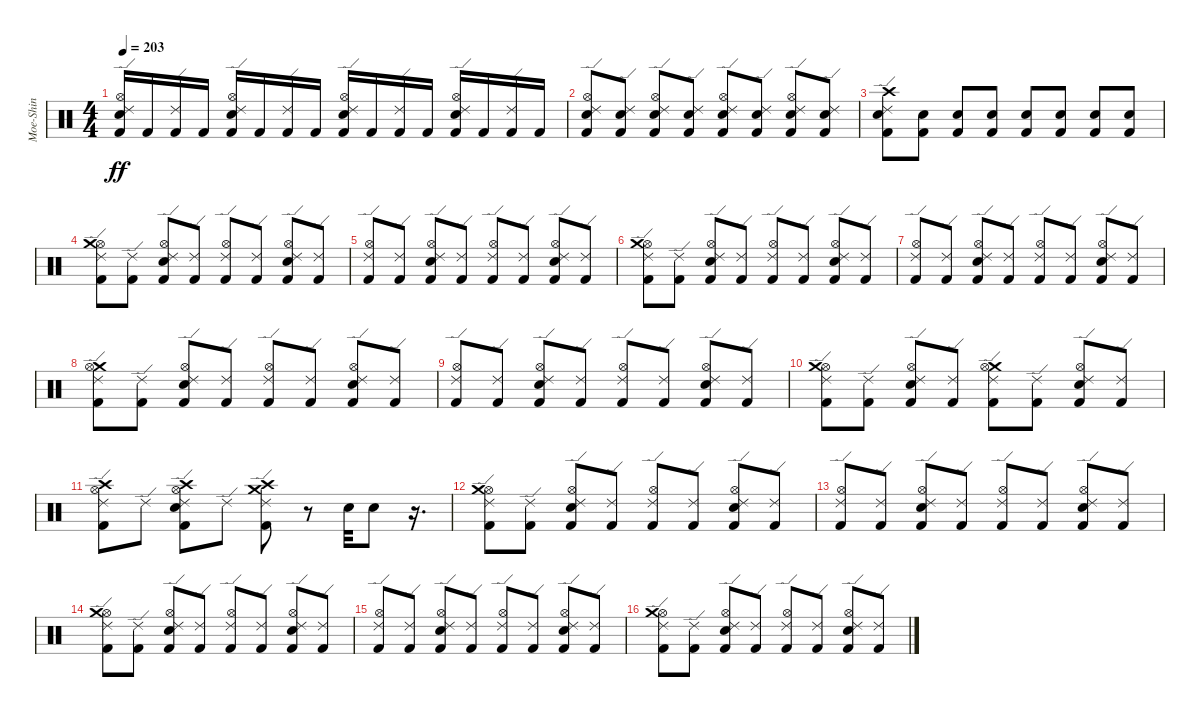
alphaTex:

\track ("Moe-Shin" "Moe-Shin") {instrument percussion}
\staff {score}
\articulation defaults
\ts (4 4)
\tempo 203
\clef neutral
\ks c
("Kick (hit) 2" "Snare (hit) 2" "Hi-Hat (open)" "Ride (edge) 2").16{dy ff} "Kick (hit) 2".16 ("Kick (hit) 2" "Ride (edge) 2").16 "Kick (hit) 2".16 ("Ride (edge) 2" "Hi-Hat (open)" "Kick (hit) 2" "Snare (hit) 2").16 "Kick (hit) 2".16 ("Kick (hit) 2" "Ride (edge) 2").16 "Kick (hit) 2".16 ("Hi-Hat (open)" "Ride (edge) 2" "Kick (hit) 2" "Snare (hit) 2").16 "Kick (hit) 2".16 ("Kick (hit) 2" "Ride (edge) 2").16 "Kick (hit) 2".16 ("Snare (hit) 2" "Hi-Hat (open)" "Kick (hit) 2" "Ride (edge) 2").16 "Kick (hit) 2".16 ("Ride (edge) 2" "Kick (hit) 2").16 "Kick (hit) 2".16 |
("Snare (hit) 2" "Ride (edge) 2" "Hi-Hat (open)" "Kick (hit) 2").8 ("Kick (hit) 2" "Snare (hit) 2" "Ride (edge) 2").8 ("Snare (hit) 2" "Hi-Hat (open)" "Kick (hit) 2" "Ride (edge) 2").8 ("Ride (edge) 2" "Snare (hit) 2" "Kick (hit) 2").8 ("Kick (hit) 2" "Snare (hit) 2" "Ride (edge) 2" "Hi-Hat (open)").8 ("Kick (hit) 2" "Snare (hit) 2" "Ride (edge) 2").8 ("Kick (hit) 2" "Ride (edge) 2" "Snare (hit) 2" "Hi-Hat (open)").8 ("Snare (hit) 2" "Kick (hit) 2" "Ride (edge) 2").8 |
("Ride (edge) 2" "Kick (hit) 2" "Crash high (hit)" "Snare (hit) 2").8 ("Kick (hit) 2" "Snare (hit) 2").8 ("Snare (hit) 2" "Kick (hit) 2").8 ("Snare (hit) 2" "Kick (hit) 2").8 ("Snare (hit) 2" "Kick (hit) 2").8 ("Kick (hit) 2" "Snare (hit) 2").8 ("Kick (hit) 2" "Snare (hit) 2").8 ("Kick (hit) 2" "Snare (hit) 2").8 |
("Hi-Hat (open)" "Kick (hit) 2" "Ride (edge) 2" "Crash medium (hit)").8 ("Ride (edge) 2" "Kick (hit) 2").8 ("Ride (edge) 2" "Kick (hit) 2" "Snare (hit) 2" "Hi-Hat (open)").8 ("Ride (edge) 2" "Kick (hit) 2").8 ("Hi-Hat (open)" "Kick (hit) 2" "Ride (edge) 2").8 ("Ride (edge) 2" "Kick (hit) 2").8 ("Snare (hit) 2" "Kick (hit) 2" "Ride (edge) 2" "Hi-Hat (open)").8 ("Kick (hit) 2" "Ride (edge) 2").8 |
("Kick (hit) 2" "Ride (edge) 2" "Hi-Hat (open)").8 ("Ride (edge) 2" "Kick (hit) 2").8 ("Snare (hit) 2" "Kick (hit) 2" "Ride (edge) 2" "Hi-Hat (open)").8 ("Ride (edge) 2" "Kick (hit) 2").8 ("Hi-Hat (open)" "Ride (edge) 2" "Kick (hit) 2").8 ("Kick (hit) 2" "Ride (edge) 2").8 ("Ride (edge) 2" "Snare (hit) 2" "Hi-Hat (open)" "Kick (hit) 2").8 ("Ride (edge) 2" "Kick (hit) 2").8 |
("Kick (hit) 2" "Hi-Hat (open)" "Ride (edge) 2" "Crash medium (hit)").8 ("Ride (edge) 2" "Kick (hit) 2").8 ("Kick (hit) 2" "Snare (hit) 2" "Hi-Hat (open)" "Ride (edge) 2").8 ("Ride (edge) 2" "Kick (hit) 2").8 ("Hi-Hat (open)" "Kick (hit) 2" "Ride (edge) 2").8 ("Ride (edge) 2" "Kick (hit) 2").8 ("Snare (hit) 2" "Kick (hit) 2" "Ride (edge) 2" "Hi-Hat (open)").8 ("Kick (hit) 2" "Ride (edge) 2").8 |
("Hi-Hat (open)" "Ride (edge) 2" "Kick (hit) 2").8 ("Kick (hit) 2" "Ride (edge) 2").8 ("Kick (hit) 2" "Hi-Hat (open)" "Ride (edge) 2" "Snare (hit) 2").8 ("Kick (hit) 2" "Ride (edge) 2").8 ("Ride (edge) 2" "Hi-Hat (open)" "Kick (hit) 2").8 ("Kick (hit) 2" "Ride (edge) 2").8 ("Ride (edge) 2" "Snare (hit) 2" "Hi-Hat (open)" "Kick (hit) 2").8 ("Kick (hit) 2" "Ride (edge) 2").8 |
("Ride (edge) 2" "Crash medium (hit)" "Hi-Hat (open)" "Kick (hit) 2").8 ("Ride (edge) 2" "Kick (hit) 2").8 ("Hi-Hat (open)" "Kick (hit) 2" "Ride (edge) 2" "Snare (hit) 2").8 ("Ride (edge) 2" "Kick (hit) 2").8 ("Kick (hit) 2" "Hi-Hat (open)" "Ride (edge) 2").8 ("Kick (hit) 2" "Ride (edge) 2").8 ("Ride (edge) 2" "Snare (hit) 2" "Kick (hit) 2" "Hi-Hat (open)").8 ("Ride (edge) 2" "Kick (hit) 2").8 |
("Ride (edge) 2" "Kick (hit) 2" "Hi-Hat (open)").8 ("Ride (edge) 2" "Kick (hit) 2").8 ("Ride (edge) 2" "Hi-Hat (open)" "Snare (hit) 2" "Kick (hit) 2").8 ("Kick (hit) 2" "Ride (edge) 2").8 ("Kick (hit) 2" "Hi-Hat (open)" "Ride (edge) 2").8 ("Kick (hit) 2" "Ride (edge) 2").8 ("Snare (hit) 2" "Ride (edge) 2" "Kick (hit) 2" "Hi-Hat (open)").8 ("Kick (hit) 2" "Ride (edge) 2").8 |
("Kick (hit) 2" "Hi-Hat (open)" "Ride (edge) 2" "Crash medium (hit)").8 ("Kick (hit) 2" "Ride (edge) 2").8 ("Kick (hit) 2" "Hi-Hat (open)" "Snare (hit) 2" "Ride (edge) 2").8 ("Ride (edge) 2" "Kick (hit) 2").8 ("Kick (hit) 2" "Ride (edge) 2" "Crash medium (hit)" "Hi-Hat (open)").8 ("Kick (hit) 2" "Ride (edge) 2").8 ("Kick (hit) 2" "Hi-Hat (open)" "Ride (edge) 2" "Snare (hit) 2").8 ("Ride (edge) 2" "Kick (hit) 2").8 |
("Ride (edge) 2" "Kick (hit) 2" "Hi-Hat (open)" "Crash high (hit)").8 "Ride (edge) 2".8 ("Crash high (hit)" "Snare (hit) 2" "Kick (hit) 2" "Ride (edge) 2" "Hi-Hat (open)").8 "Ride (edge) 2".8 ("Crash high (hit)" "Kick (hit) 2" "Crash medium (hit)" "Ride (edge) 2").8 r.8 "Snare (hit) 2".32 "Snare (hit) 2".8 r.16{d} |
("Ride (edge) 2" "Hi-Hat (open)" "Kick (hit) 2" "Crash medium (hit)").8 ("Ride (edge) 2" "Kick (hit) 2").8 ("Ride (edge) 2" "Snare (hit) 2" "Hi-Hat (open)" "Kick (hit) 2").8 ("Kick (hit) 2" "Ride (edge) 2").8 ("Ride (edge) 2" "Kick (hit) 2" "Hi-Hat (open)").8 ("Ride (edge) 2" "Kick (hit) 2").8 ("Ride (edge) 2" "Hi-Hat (open)" "Snare (hit) 2" "Kick (hit) 2").8 ("Kick (hit) 2" "Ride (edge) 2").8 |
("Kick (hit) 2" "Ride (edge) 2" "Hi-Hat (open)").8 ("Ride (edge) 2" "Kick (hit) 2").8 ("Snare (hit) 2" "Hi-Hat (open)" "Kick (hit) 2" "Ride (edge) 2").8 ("Ride (edge) 2" "Kick (hit) 2").8 ("Ride (edge) 2" "Kick (hit) 2" "Hi-Hat (open)").8 ("Kick (hit) 2" "Ride (edge) 2").8 ("Snare (hit) 2" "Kick (hit) 2" "Hi-Hat (open)" "Ride (edge) 2").8 ("Kick (hit) 2" "Ride (edge) 2").8 |
("Kick (hit) 2" "Ride (edge) 2" "Hi-Hat (open)" "Crash medium (hit)").8 ("Ride (edge) 2" "Kick (hit) 2").8 ("Ride (edge) 2" "Snare (hit) 2" "Hi-Hat (open)" "Kick (hit) 2").8 ("Kick (hit) 2" "Ride (edge) 2").8 ("Kick (hit) 2" "Hi-Hat (open)" "Ride (edge) 2").8 ("Kick (hit) 2" "Ride (edge) 2").8 ("Kick (hit) 2" "Ride (edge) 2" "Hi-Hat (open)" "Snare (hit) 2").8 ("Ride (edge) 2" "Kick (hit) 2").8 |
("Kick (hit) 2" "Hi-Hat (open)" "Ride (edge) 2").8 ("Ride (edge) 2" "Kick (hit) 2").8 ("Kick (hit) 2" "Hi-Hat (open)" "Snare (hit) 2" "Ride (edge) 2").8 ("Kick (hit) 2" "Ride (edge) 2").8 ("Hi-Hat (open)" "Ride (edge) 2" "Kick (hit) 2").8 ("Kick (hit) 2" "Ride (edge) 2").8 ("Ride (edge) 2" "Hi-Hat (open)" "Snare (hit) 2" "Kick (hit) 2").8 ("Ride (edge) 2" "Kick (hit) 2").8 |
("Hi-Hat (open)" "Kick (hit) 2" "Crash medium (hit)" "Ride (edge) 2").8 ("Ride (edge) 2" "Kick (hit) 2").8 ("Snare (hit) 2" "Hi-Hat (open)" "Kick (hit) 2" "Ride (edge) 2").8 ("Ride (edge) 2" "Kick (hit) 2").8 ("Kick (hit) 2" "Ride (edge) 2" "Hi-Hat (open)").8 ("Ride (edge) 2" "Kick (hit) 2").8 ("Snare (hit) 2" "Ride (edge) 2" "Kick (hit) 2" "Hi-Hat (open)").8 ("Ride (edge) 2" "Kick (hit) 2").8
